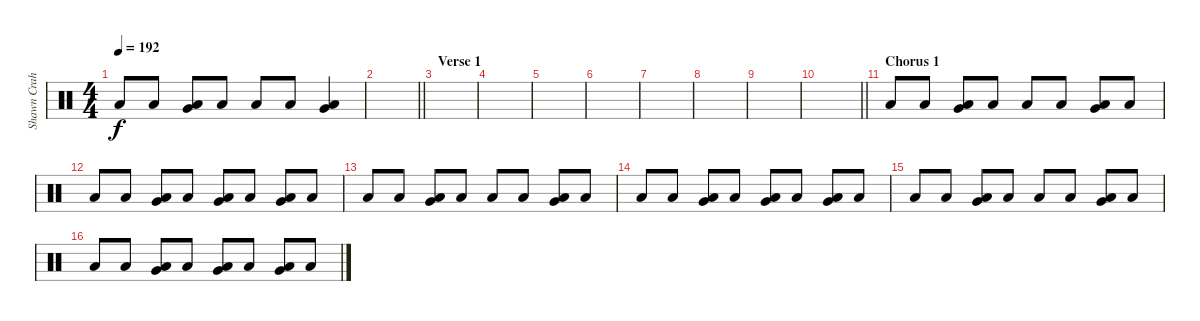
\track ("Shawn Crahan" "Shawn Crah") {instrument percussion}
\staff {score}
\articulation defaults
\ts (4 4)
\tempo 192
\clef neutral
\ks c "Low Floor Tom (hit)".8{dy f} "Low Floor Tom (hit)".8
("Very Low Tom (hit)" "Low Floor Tom (hit)").8 "Low Floor Tom (hit)".8 "Low Floor Tom (hit)".8 "Low Floor Tom (hit)".8 ("Very Low Tom (hit)" "Low Floor Tom (hit)").4 |
\barLineRight lightlight
|
\section ("" "Verse 1")
|
|
|
|
|
|
|
\barLineRight lightlight
|
\section ("" "Chorus 1")
"Low Floor Tom (hit)".8 "Low Floor Tom (hit)".8 ("Very Low Tom (hit)" "Low Floor Tom (hit)").8 "Low Floor Tom (hit)".8 "Low Floor Tom (hit)".8 "Low Floor Tom (hit)".8 ("Very Low Tom (hit)" "Low Floor Tom (hit)").8 "Low Floor Tom (hit)".8 |
"Low Floor Tom (hit)".8 "Low Floor Tom (hit)".8 ("Very Low Tom (hit)" "Low Floor Tom (hit)").8 "Low Floor Tom (hit)".8 ("Very Low Tom (hit)" "Low Floor Tom (hit)").8 "Low Floor Tom (hit)".8 ("Very Low Tom (hit)" "Low Floor Tom (hit)").8 "Low Floor Tom (hit)".8 |
"Low Floor Tom (hit)".8 "Low Floor Tom (hit)".8 ("Very Low Tom (hit)" "Low Floor Tom (hit)").8 "Low Floor Tom (hit)".8 "Low Floor Tom (hit)".8 "Low Floor Tom (hit)".8 ("Very Low Tom (hit)" "Low Floor Tom (hit)").8 "Low Floor Tom (hit)".8 |
"Low Floor Tom (hit)".8 "Low Floor Tom (hit)".8 ("Very Low Tom (hit)" "Low Floor Tom (hit)").8 "Low Floor Tom (hit)".8 ("Very Low Tom (hit)" "Low Floor Tom (hit)").8 "Low Floor Tom (hit)".8 ("Very Low Tom (hit)" "Low Floor Tom (hit)").8 "Low Floor Tom (hit)".8 |
"Low Floor Tom (hit)".8 "Low Floor Tom (hit)".8 ("Very Low Tom (hit)" "Low Floor Tom (hit)").8 "Low Floor Tom (hit)".8 "Low Floor Tom (hit)".8 "Low Floor Tom (hit)".8 ("Very Low Tom (hit)" "Low Floor Tom (hit)").8 "Low Floor Tom (hit)".8 |
"Low Floor Tom (hit)".8 "Low Floor Tom (hit)".8 ("Very Low Tom (hit)" "Low Floor Tom (hit)").8 "Low Floor Tom (hit)".8 ("Very Low Tom (hit)" "Low Floor Tom (hit)").8 "Low Floor Tom (hit)".8 ("Very Low Tom (hit)" "Low Floor Tom (hit)").8 "Low Floor Tom (hit)".8
